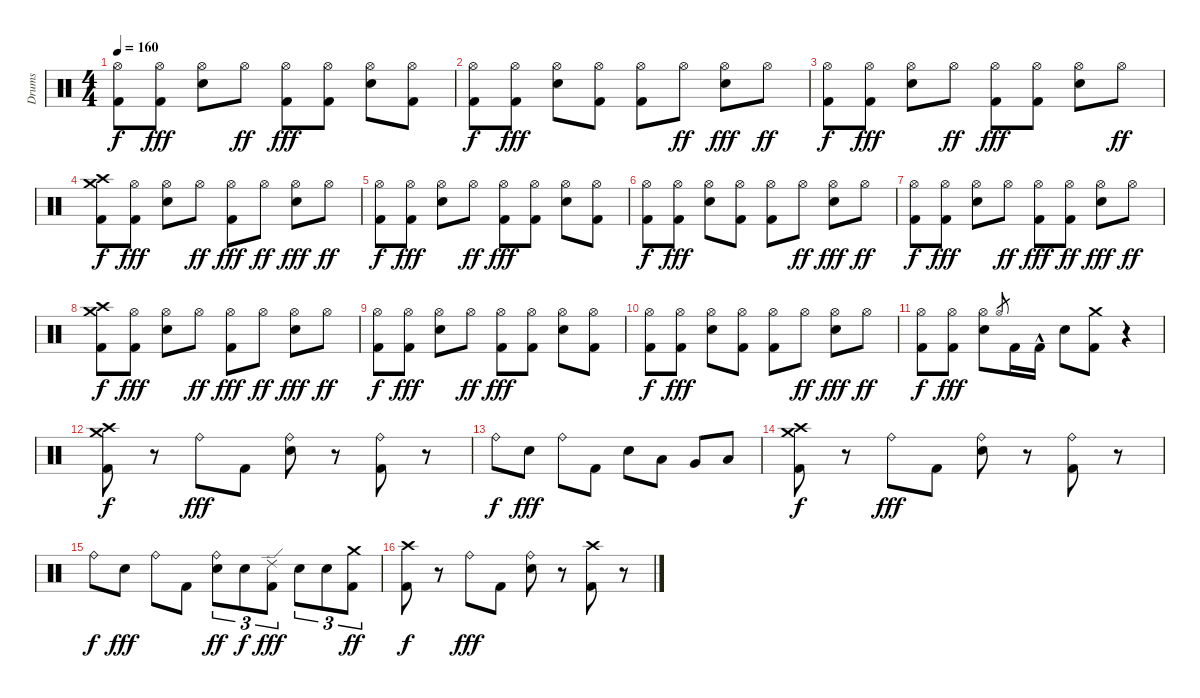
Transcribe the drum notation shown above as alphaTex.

\track ("Drums" "Drums") {instrument percussion}
\staff {score}
\articulation defaults
\ts (4 4)
\tempo 160
\clef neutral
\ks c
("Hi-Hat (open)" "Kick (hit) 2").8{dy f} ("Hi-Hat (open)" "Kick (hit) 2").8{dy fff} ("Hi-Hat (open)" "Snare (hit) 2").8 "Hi-Hat (open)".8{dy ff} ("Hi-Hat (open)" "Kick (hit) 2").8{dy fff} ("Hi-Hat (open)" "Kick (hit) 2").8 ("Hi-Hat (open)" "Snare (hit) 2").8 ("Hi-Hat (open)" "Kick (hit) 2").8 |
("Hi-Hat (open)" "Kick (hit) 2").8{dy f} ("Hi-Hat (open)" "Kick (hit) 2").8{dy fff} ("Hi-Hat (open)" "Snare (hit) 2").8 ("Hi-Hat (open)" "Kick (hit) 2").8 ("Hi-Hat (open)" "Kick (hit) 2").8 "Hi-Hat (open)".8{dy ff} ("Hi-Hat (open)" "Snare (hit) 2").8{dy fff} "Hi-Hat (open)".8{dy ff} |
("Hi-Hat (open)" "Kick (hit) 2").8{dy f} ("Hi-Hat (open)" "Kick (hit) 2").8{dy fff} ("Hi-Hat (open)" "Snare (hit) 2").8 "Hi-Hat (open)".8{dy ff} ("Hi-Hat (open)" "Kick (hit) 2").8{dy fff} ("Hi-Hat (open)" "Kick (hit) 2").8 ("Hi-Hat (open)" "Snare (hit) 2").8 "Hi-Hat (open)".8{dy ff} |
("Crash high (hit)" "Crash medium (hit)" "Kick (hit) 2").8{dy f} ("Hi-Hat (open)" "Kick (hit) 2").8{dy fff} ("Hi-Hat (open)" "Snare (hit) 2").8 "Hi-Hat (open)".8{dy ff} ("Hi-Hat (open)" "Kick (hit) 2").8{dy fff} "Hi-Hat (open)".8{dy ff} ("Hi-Hat (open)" "Snare (hit) 2").8{dy fff} "Hi-Hat (open)".8{dy ff} |
("Hi-Hat (open)" "Kick (hit) 2").8{dy f} ("Hi-Hat (open)" "Kick (hit) 2").8{dy fff} ("Hi-Hat (open)" "Snare (hit) 2").8 "Hi-Hat (open)".8{dy ff} ("Hi-Hat (open)" "Kick (hit) 2").8{dy fff} ("Hi-Hat (open)" "Kick (hit) 2").8 ("Hi-Hat (open)" "Snare (hit) 2").8 ("Hi-Hat (open)" "Kick (hit) 2").8 |
("Hi-Hat (open)" "Kick (hit) 2").8{dy f} ("Hi-Hat (open)" "Kick (hit) 2").8{dy fff} ("Hi-Hat (open)" "Snare (hit) 2").8 ("Hi-Hat (open)" "Kick (hit) 2").8 ("Hi-Hat (open)" "Kick (hit) 2").8 "Hi-Hat (open)".8{dy ff} ("Hi-Hat (open)" "Snare (hit) 2").8{dy fff} "Hi-Hat (open)".8{dy ff} |
("Hi-Hat (open)" "Kick (hit) 2").8{dy f} ("Hi-Hat (open)" "Kick (hit) 2").8{dy fff} ("Hi-Hat (open)" "Snare (hit) 2").8 "Hi-Hat (open)".8{dy ff} ("Hi-Hat (open)" "Kick (hit) 2").8{dy fff} ("Hi-Hat (open)" "Kick (hit) 2").8{dy ff} ("Hi-Hat (open)" "Snare (hit) 2").8{dy fff} "Hi-Hat (open)".8{dy ff} |
("Crash high (hit)" "Crash medium (hit)" "Kick (hit) 2").8{dy f} ("Hi-Hat (open)" "Kick (hit) 2").8{dy fff} ("Hi-Hat (open)" "Snare (hit) 2").8 "Hi-Hat (open)".8{dy ff} ("Hi-Hat (open)" "Kick (hit) 2").8{dy fff} "Hi-Hat (open)".8{dy ff} ("Hi-Hat (open)" "Snare (hit) 2").8{dy fff} "Hi-Hat (open)".8{dy ff} |
("Hi-Hat (open)" "Kick (hit) 2").8{dy f} ("Hi-Hat (open)" "Kick (hit) 2").8{dy fff} ("Hi-Hat (open)" "Snare (hit) 2").8 "Hi-Hat (open)".8{dy ff} ("Hi-Hat (open)" "Kick (hit) 2").8{dy fff} ("Hi-Hat (open)" "Kick (hit) 2").8 ("Hi-Hat (open)" "Snare (hit) 2").8 ("Hi-Hat (open)" "Kick (hit) 2").8 |
("Hi-Hat (open)" "Kick (hit) 2").8{dy f} ("Hi-Hat (open)" "Kick (hit) 2").8{dy fff} ("Hi-Hat (open)" "Snare (hit) 2").8 ("Hi-Hat (open)" "Kick (hit) 2").8 ("Hi-Hat (open)" "Kick (hit) 2").8 "Hi-Hat (open)".8{dy ff} ("Hi-Hat (open)" "Snare (hit) 2").8{dy fff} "Hi-Hat (open)".8{dy ff} |
("Hi-Hat (open)" "Kick (hit) 2").8{dy f} ("Hi-Hat (open)" "Kick (hit) 2").8{dy fff} ("Hi-Hat (open)" "Snare (hit) 2").8 "Hi-Hat (open)".8{gr} "Kick (hit) 2".16 "Kick (hit) 2"{hac}.16 "Snare (hit) 2".8 ("Kick (hit) 2" "Crash medium (hit)").8 r.4 |
("Kick (hit) 2" "Crash high (hit)" "Crash medium (hit)").8{dy f} r.8 "Ride (bell)".8{dy fff} "Kick (hit) 2".8 ("Ride (bell)" "Snare (hit) 2").8 r.8 ("Ride (bell)" "Kick (hit) 2").8 r.8 |
"Ride (bell)".8{dy f} "Snare (hit) 2".8{dy fff} "Ride (bell)".8 "Kick (hit) 2".8 "Snare (hit) 2".8 "Low Tom (hit)".8 "Very Low Tom (hit)".8 "Low Floor Tom (hit)".8 |
("Crash medium (hit)" "Kick (hit) 2" "Crash high (hit)").8{dy f} r.8 "Ride (bell)".8{dy fff} "Kick (hit) 2".8 ("Ride (bell)" "Snare (hit) 2").8 r.8 ("Ride (bell)" "Kick (hit) 2").8 r.8 |
"Ride (bell)".8{dy f} "Snare (hit) 2".8{dy fff} "Ride (bell)".8 "Kick (hit) 2".8 ("Ride (bell)" "Snare (hit) 2").8{tu (3 2) dy ff} "Snare (hit) 2".8{tu (3 2) dy f} ("Ride (edge) 2" "Kick (hit) 2").8{tu (3 2) dy fff} "Snare (hit) 2".8{tu (3 2)} "Snare (hit) 2".8{tu (3 2)} ("Crash medium (hit)" "Kick (hit) 2").8{tu (3 2) dy ff} |
("Kick (hit) 2" "Crash high (hit)").8{dy f} r.8 "Ride (bell)".8{dy fff} "Kick (hit) 2".8 ("Ride (bell)" "Snare (hit) 2").8 r.8 ("Crash high (hit)" "Kick (hit) 2").8 r.8
